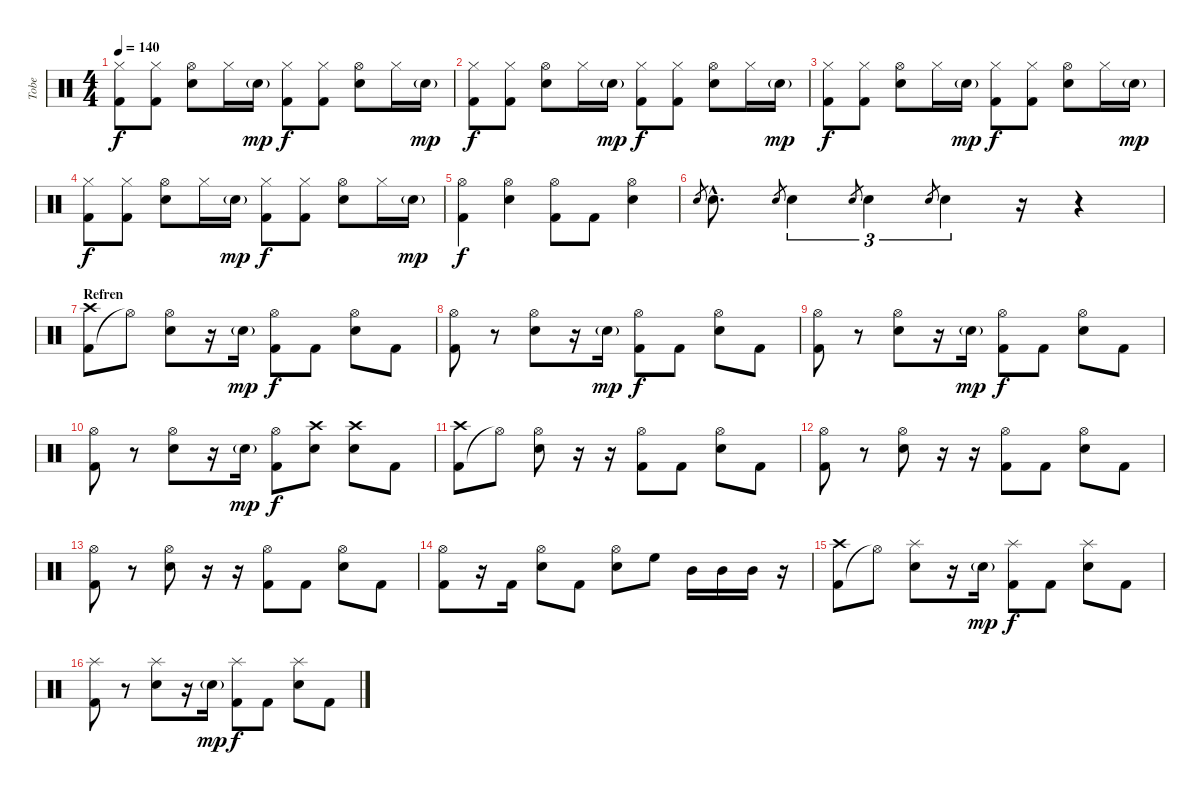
\track ("Tobe" "Tobe") {instrument percussion}
\staff {score}
\articulation defaults
\ts (4 4)
\tempo 140
\clef neutral
\ks c
("Kick (hit) 2" "Hi-Hat (closed)").8{dy f} ("Kick (hit) 2" "Hi-Hat (closed)").8 ("Electric Snare (hit)" "Hi-Hat (open)").8 "Hi-Hat (closed)".16 "Electric Snare (hit)"{g}.16{dy mp} ("Kick (hit) 2" "Hi-Hat (closed)").8{dy f} ("Kick (hit) 2" "Hi-Hat (closed)").8 ("Electric Snare (hit)" "Hi-Hat (open)").8 "Hi-Hat (closed)".16 "Electric Snare (hit)"{g}.16{dy mp} |
("Kick (hit) 2" "Hi-Hat (closed)").8{dy f} ("Kick (hit) 2" "Hi-Hat (closed)").8 ("Electric Snare (hit)" "Hi-Hat (open)").8 "Hi-Hat (closed)".16 "Electric Snare (hit)"{g}.16{dy mp} ("Kick (hit) 2" "Hi-Hat (closed)").8{dy f} ("Kick (hit) 2" "Hi-Hat (closed)").8 ("Electric Snare (hit)" "Hi-Hat (open)").8 "Hi-Hat (closed)".16 "Electric Snare (hit)"{g}.16{dy mp} |
("Kick (hit) 2" "Hi-Hat (closed)").8{dy f} ("Kick (hit) 2" "Hi-Hat (closed)").8 ("Electric Snare (hit)" "Hi-Hat (open)").8 "Hi-Hat (closed)".16 "Electric Snare (hit)"{g}.16{dy mp} ("Kick (hit) 2" "Hi-Hat (closed)").8{dy f} ("Kick (hit) 2" "Hi-Hat (closed)").8 ("Electric Snare (hit)" "Hi-Hat (open)").8 "Hi-Hat (closed)".16 "Electric Snare (hit)"{g}.16{dy mp} |
("Kick (hit) 2" "Hi-Hat (closed)").8{dy f} ("Kick (hit) 2" "Hi-Hat (closed)").8 ("Electric Snare (hit)" "Hi-Hat (open)").8 "Hi-Hat (closed)".16 "Electric Snare (hit)"{g}.16{dy mp} ("Kick (hit) 2" "Hi-Hat (closed)").8{dy f} ("Kick (hit) 2" "Hi-Hat (closed)").8 ("Electric Snare (hit)" "Hi-Hat (open)").8 "Hi-Hat (closed)".16 "Electric Snare (hit)"{g}.16{dy mp} |
("Kick (hit) 2" "Hi-Hat (open)").4{dy f} ("Electric Snare (hit)" "Hi-Hat (open)").4 ("Kick (hit) 2" "Hi-Hat (open)").8 "Kick (hit) 2".8 ("Electric Snare (hit)" "Hi-Hat (open)").4 |
"Electric Snare (hit)".8{gr} "Electric Snare (hit)"{hac}.8{d} "Electric Snare (hit)".8{gr} "Electric Snare (hit)".4{tu (3 2)} "Electric Snare (hit)".8{gr} "Electric Snare (hit)".4{tu (3 2)} "Electric Snare (hit)".8{gr} "Electric Snare (hit)".4{tu (3 2)} r.16 r.4 |
\section ("" "Refren")
("Kick (hit) 2" "Crash high (hit)").8 "Hi-Hat (open)"{t}.8 ("Electric Snare (hit)" "Hi-Hat (open)").8 r.16 "Electric Snare (hit)"{g}.16{dy mp} ("Kick (hit) 2" "Hi-Hat (open)").8{dy f} "Kick (hit) 2".8 ("Electric Snare (hit)" "Hi-Hat (open)").8 "Kick (hit) 2".8 |
("Kick (hit) 2" "Hi-Hat (open)").8 r.8 ("Electric Snare (hit)" "Hi-Hat (open)").8 r.16 "Electric Snare (hit)"{g}.16{dy mp} ("Kick (hit) 2" "Hi-Hat (open)").8{dy f} "Kick (hit) 2".8 ("Electric Snare (hit)" "Hi-Hat (open)").8 "Kick (hit) 2".8 |
("Kick (hit) 2" "Hi-Hat (open)").8 r.8 ("Electric Snare (hit)" "Hi-Hat (open)").8 r.16 "Electric Snare (hit)"{g}.16{dy mp} ("Kick (hit) 2" "Hi-Hat (open)").8{dy f} "Kick (hit) 2".8 ("Electric Snare (hit)" "Hi-Hat (open)").8 "Kick (hit) 2".8 |
("Kick (hit) 2" "Hi-Hat (open)").8 r.8 ("Electric Snare (hit)" "Hi-Hat (open)").8 r.16 "Electric Snare (hit)"{g}.16{dy mp} ("Kick (hit) 2" "Hi-Hat (open)").8{dy f} ("Electric Snare (hit)" "Crash high (hit)").8 ("Electric Snare (hit)" "Crash high (hit)").8 "Kick (hit) 2".8 |
("Kick (hit) 2" "Crash high (hit)").8 "Hi-Hat (open)"{t}.8 ("Electric Snare (hit)" "Hi-Hat (open)").8 r.16 r.16 ("Kick (hit) 2" "Hi-Hat (open)").8 "Kick (hit) 2".8 ("Electric Snare (hit)" "Hi-Hat (open)").8 "Kick (hit) 2".8 |
("Kick (hit) 2" "Hi-Hat (open)").8 r.8 ("Electric Snare (hit)" "Hi-Hat (open)").8 r.16 r.16 ("Kick (hit) 2" "Hi-Hat (open)").8 "Kick (hit) 2".8 ("Electric Snare (hit)" "Hi-Hat (open)").8 "Kick (hit) 2".8 |
("Kick (hit) 2" "Hi-Hat (open)").8 r.8 ("Electric Snare (hit)" "Hi-Hat (open)").8 r.16 r.16 ("Kick (hit) 2" "Hi-Hat (open)").8 "Kick (hit) 2".8 ("Electric Snare (hit)" "Hi-Hat (open)").8 "Kick (hit) 2".8 |
("Kick (hit) 2" "Hi-Hat (open)").8 r.16 "Kick (hit) 2".16 ("Electric Snare (hit)" "Hi-Hat (open)").8 "Kick (hit) 2".8 ("Electric Snare (hit)" "Hi-Hat (open)").8 "High Floor Tom (hit)".8 "Mid Tom (hit)".16 "Mid Tom (hit)".16 "Mid Tom (hit)".16 r.16 |
("Kick (hit) 2" "Crash high (hit)").8 "Hi-Hat (open)"{t}.8 ("Electric Snare (hit)" "Splash (hit)").8 r.16 "Electric Snare (hit)"{g}.16{dy mp} ("Kick (hit) 2" "Splash (hit)").8{dy f} "Kick (hit) 2".8 ("Electric Snare (hit)" "Splash (hit)").8 "Kick (hit) 2".8 |
("Kick (hit) 2" "Splash (hit)").8 r.8 ("Electric Snare (hit)" "Splash (hit)").8 r.16 "Electric Snare (hit)"{g}.16{dy mp} ("Kick (hit) 2" "Splash (hit)").8{dy f} "Kick (hit) 2".8 ("Electric Snare (hit)" "Splash (hit)").8 "Kick (hit) 2".8
